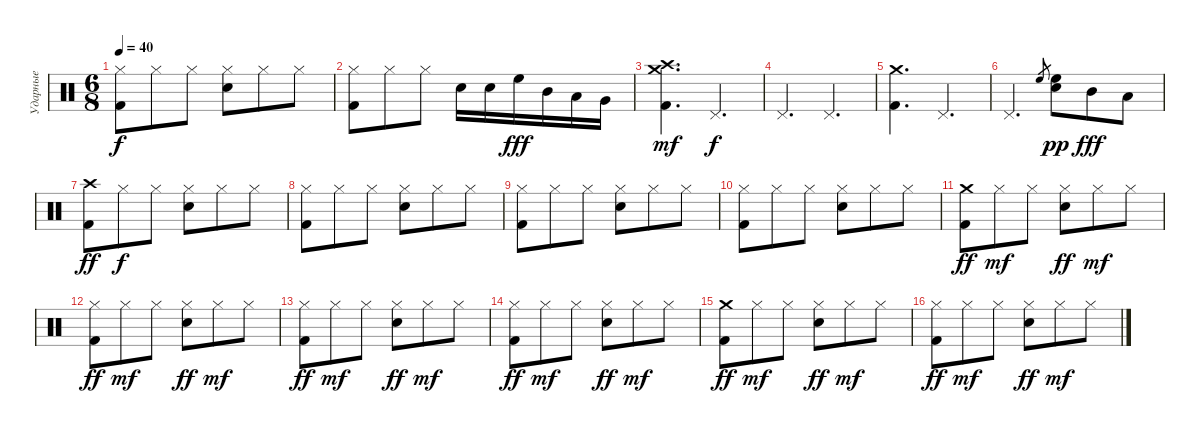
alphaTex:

\track ("Ударные" "Ударные") {instrument percussion}
\staff {score}
\articulation defaults
\ts (6 8)
\tempo 40
\clef neutral
\ks c
("Hi-Hat (closed)" "Kick (hit) 2").8{dy f} "Hi-Hat (closed)".8 "Hi-Hat (closed)".8 ("Hi-Hat (closed)" "Snare (hit) 2").8 "Hi-Hat (closed)".8 "Hi-Hat (closed)".8 |
("Hi-Hat (closed)" "Kick (hit) 2").8 "Hi-Hat (closed)".8 "Hi-Hat (closed)".8 "Snare (hit) 2".16 "Snare (hit) 2".16 "High Floor Tom (hit)".16{dy fff} "Mid Tom (hit)".16 "Low Tom (hit)".16 "Very Low Tom (hit)".16 |
("Crash medium (hit)" "Crash high (hit)" "Kick (hit) 2").4{d dy mf} "Pedal Hi-Hat (hit)".4{d dy f} |
"Pedal Hi-Hat (hit)".4{d} "Pedal Hi-Hat (hit)".4{d} |
("Kick (hit) 2" "Crash medium (hit)").4{d} "Pedal Hi-Hat (hit)".4{d} |
"Pedal Hi-Hat (hit)".4{d} "High Floor Tom (hit)".8{gr} ("High Floor Tom (hit)" "Snare (hit) 2").8{dy pp} "Mid Tom (hit)".8{dy fff} "Low Floor Tom (hit)".8 |
("Crash high (hit)" "Kick (hit) 2").8{dy ff} "Hi-Hat (closed)".8{dy f} "Hi-Hat (closed)".8 ("Hi-Hat (closed)" "Snare (hit) 2").8 "Hi-Hat (closed)".8 "Hi-Hat (closed)".8 |
("Hi-Hat (closed)" "Kick (hit) 2").8 "Hi-Hat (closed)".8 "Hi-Hat (closed)".8 ("Hi-Hat (closed)" "Snare (hit) 2").8 "Hi-Hat (closed)".8 "Hi-Hat (closed)".8 |
("Hi-Hat (closed)" "Kick (hit) 2").8 "Hi-Hat (closed)".8 "Hi-Hat (closed)".8 ("Hi-Hat (closed)" "Snare (hit) 2").8 "Hi-Hat (closed)".8 "Hi-Hat (closed)".8 |
("Hi-Hat (closed)" "Kick (hit) 2").8 "Hi-Hat (closed)".8 "Hi-Hat (closed)".8 ("Hi-Hat (closed)" "Snare (hit) 2").8 "Hi-Hat (closed)".8 "Hi-Hat (closed)".8 |
("Crash medium (hit)" "Kick (hit) 2").8{dy ff} "Hi-Hat (closed)".8{dy mf} "Hi-Hat (closed)".8 ("Hi-Hat (closed)" "Snare (hit) 2").8{dy ff} "Hi-Hat (closed)".8{dy mf} "Hi-Hat (closed)".8 |
("Hi-Hat (closed)" "Kick (hit) 2").8{dy ff} "Hi-Hat (closed)".8{dy mf} "Hi-Hat (closed)".8 ("Hi-Hat (closed)" "Snare (hit) 2").8{dy ff} "Hi-Hat (closed)".8{dy mf} "Hi-Hat (closed)".8 |
("Hi-Hat (closed)" "Kick (hit) 2").8{dy ff} "Hi-Hat (closed)".8{dy mf} "Hi-Hat (closed)".8 ("Hi-Hat (closed)" "Snare (hit) 2").8{dy ff} "Hi-Hat (closed)".8{dy mf} "Hi-Hat (closed)".8 |
("Hi-Hat (closed)" "Kick (hit) 2").8{dy ff} "Hi-Hat (closed)".8{dy mf} "Hi-Hat (closed)".8 ("Hi-Hat (closed)" "Snare (hit) 2").8{dy ff} "Hi-Hat (closed)".8{dy mf} "Hi-Hat (closed)".8 |
("Crash medium (hit)" "Kick (hit) 2").8{dy ff} "Hi-Hat (closed)".8{dy mf} "Hi-Hat (closed)".8 ("Hi-Hat (closed)" "Snare (hit) 2").8{dy ff} "Hi-Hat (closed)".8{dy mf} "Hi-Hat (closed)".8 |
("Hi-Hat (closed)" "Kick (hit) 2").8{dy ff} "Hi-Hat (closed)".8{dy mf} "Hi-Hat (closed)".8 ("Hi-Hat (closed)" "Snare (hit) 2").8{dy ff} "Hi-Hat (closed)".8{dy mf} "Hi-Hat (closed)".8
